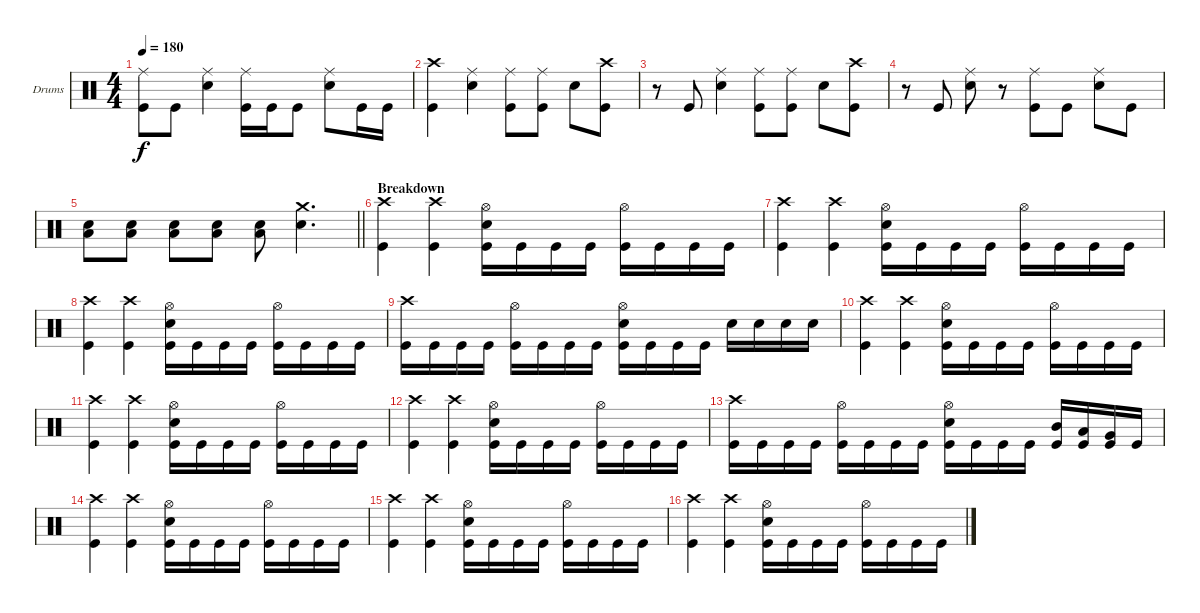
\bracketExtendMode groupsimilarinstruments
\firstSystemTrackNameOrientation horizontal
\otherSystemsTrackNameOrientation horizontal
\track ("Drumkit" "Drums") {instrument percussion}
\staff {score}
\articulation defaults
\ts (4 4)
\tempo 180
\clef neutral
\ks c
("Ride (middle)" "Kick (hit)").8{dy f} "Kick (hit)".8 ("Ride (middle)" "Snare (hit) 2").4 ("Ride (middle)" "Kick (hit)").16 "Kick (hit)".16 "Kick (hit)".8 ("Ride (middle)" "Snare (hit) 2").8 "Kick (hit)".16 "Kick (hit)".16 |
("Crash high (hit)" "Kick (hit)").4 ("Ride (middle)" "Snare (hit) 2").4 ("Ride (middle)" "Kick (hit)").8 ("Ride (middle)" "Kick (hit)").8 "Snare (hit) 2".8 ("Crash high (hit)" "Kick (hit)").8 |
r.8 "Kick (hit)".8 ("Ride (middle)" "Snare (hit) 2").4 ("Ride (middle)" "Kick (hit)").8 ("Ride (middle)" "Kick (hit)").8 "Snare (hit) 2".8 ("Crash high (hit)" "Kick (hit)").8 |
r.8 "Kick (hit)".8 ("Ride (middle)" "Snare (hit) 2").8 r.8 ("Ride (middle)" "Kick (hit)").8 "Kick (hit)".8 ("Ride (middle)" "Snare (hit) 2").8 "Kick (hit)".8 |
\barLineRight lightlight
("Low Tom (hit)" "Snare (hit) 2").8 ("Low Tom (hit)" "Snare (hit) 2").8 ("Low Tom (hit)" "Snare (hit) 2").8 ("Low Tom (hit)" "Snare (hit) 2").8 ("Low Tom (hit)" "Snare (hit) 2").8 ("Crash medium (hit)" "Snare (hit) 2").4{d} |
\section ("" "Breakdown")
("Crash high (hit)" "Kick (hit)").4 ("Crash high (hit)" "Kick (hit)").4 ("Hi-Hat (open)" "Snare (hit) 2" "Kick (hit)").16 "Kick (hit)".16 "Kick (hit)".16 "Kick (hit)".16 ("Hi-Hat (open)" "Kick (hit)").16 "Kick (hit)".16 "Kick (hit)".16 "Kick (hit)".16 |
("Crash high (hit)" "Kick (hit)").4 ("Crash high (hit)" "Kick (hit)").4 ("Hi-Hat (open)" "Snare (hit) 2" "Kick (hit)").16 "Kick (hit)".16 "Kick (hit)".16 "Kick (hit)".16 ("Hi-Hat (open)" "Kick (hit)").16 "Kick (hit)".16 "Kick (hit)".16 "Kick (hit)".16 |
("Crash high (hit)" "Kick (hit)").4 ("Crash high (hit)" "Kick (hit)").4 ("Hi-Hat (open)" "Snare (hit) 2" "Kick (hit)").16 "Kick (hit)".16 "Kick (hit)".16 "Kick (hit)".16 ("Hi-Hat (open)" "Kick (hit)").16 "Kick (hit)".16 "Kick (hit)".16 "Kick (hit)".16 |
("Crash high (hit)" "Kick (hit)").16 "Kick (hit)".16 "Kick (hit)".16 "Kick (hit)".16 ("Hi-Hat (open)" "Kick (hit)").16 "Kick (hit)".16 "Kick (hit)".16 "Kick (hit)".16 ("Hi-Hat (open)" "Snare (hit) 2" "Kick (hit)").16 "Kick (hit)".16 "Kick (hit)".16 "Kick (hit)".16 "Snare (hit) 2".16 "Snare (hit) 2".16 "Snare (hit) 2".16 "Snare (hit) 2".16 |
("Crash high (hit)" "Kick (hit)").4 ("Crash high (hit)" "Kick (hit)").4 ("Hi-Hat (open)" "Snare (hit) 2" "Kick (hit)").16 "Kick (hit)".16 "Kick (hit)".16 "Kick (hit)".16 ("Hi-Hat (open)" "Kick (hit)").16 "Kick (hit)".16 "Kick (hit)".16 "Kick (hit)".16 |
("Crash high (hit)" "Kick (hit)").4 ("Crash high (hit)" "Kick (hit)").4 ("Hi-Hat (open)" "Snare (hit) 2" "Kick (hit)").16 "Kick (hit)".16 "Kick (hit)".16 "Kick (hit)".16 ("Hi-Hat (open)" "Kick (hit)").16 "Kick (hit)".16 "Kick (hit)".16 "Kick (hit)".16 |
("Crash high (hit)" "Kick (hit)").4 ("Crash high (hit)" "Kick (hit)").4 ("Hi-Hat (open)" "Snare (hit) 2" "Kick (hit)").16 "Kick (hit)".16 "Kick (hit)".16 "Kick (hit)".16 ("Hi-Hat (open)" "Kick (hit)").16 "Kick (hit)".16 "Kick (hit)".16 "Kick (hit)".16 |
("Crash high (hit)" "Kick (hit)").16 "Kick (hit)".16 "Kick (hit)".16 "Kick (hit)".16 ("Hi-Hat (open)" "Kick (hit)").16 "Kick (hit)".16 "Kick (hit)".16 "Kick (hit)".16 ("Hi-Hat (open)" "Snare (hit) 2" "Kick (hit)").16 "Kick (hit)".16 "Kick (hit)".16 "Kick (hit)".16 ("Mid Tom (hit)" "Kick (hit)").16 ("Low Tom (hit)" "Kick (hit)").16 ("Very Low Tom (hit)" "Kick (hit)").16 "Kick (hit)".16 |
("Crash high (hit)" "Kick (hit)").4 ("Crash high (hit)" "Kick (hit)").4 ("Hi-Hat (open)" "Snare (hit) 2" "Kick (hit)").16 "Kick (hit)".16 "Kick (hit)".16 "Kick (hit)".16 ("Hi-Hat (open)" "Kick (hit)").16 "Kick (hit)".16 "Kick (hit)".16 "Kick (hit)".16 |
("Crash high (hit)" "Kick (hit)").4 ("Crash high (hit)" "Kick (hit)").4 ("Hi-Hat (open)" "Snare (hit) 2" "Kick (hit)").16 "Kick (hit)".16 "Kick (hit)".16 "Kick (hit)".16 ("Hi-Hat (open)" "Kick (hit)").16 "Kick (hit)".16 "Kick (hit)".16 "Kick (hit)".16 |
("Crash high (hit)" "Kick (hit)").4 ("Crash high (hit)" "Kick (hit)").4 ("Hi-Hat (open)" "Snare (hit) 2" "Kick (hit)").16 "Kick (hit)".16 "Kick (hit)".16 "Kick (hit)".16 ("Hi-Hat (open)" "Kick (hit)").16 "Kick (hit)".16 "Kick (hit)".16 "Kick (hit)".16
